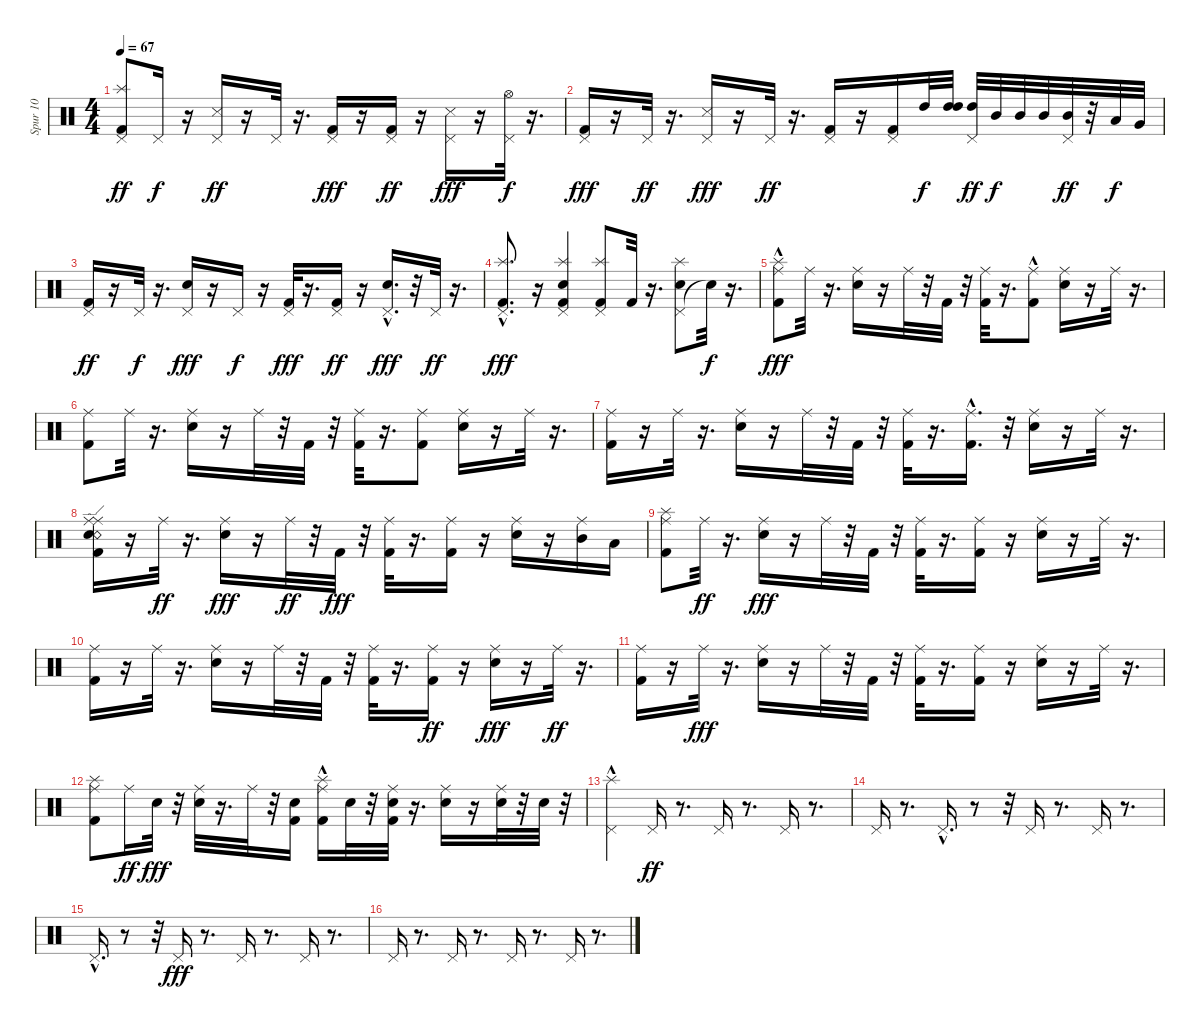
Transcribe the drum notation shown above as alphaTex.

\track ("Spur 10" "Spur 10") {instrument percussion}
\staff {score}
\articulation defaults
\ts (4 4)
\tempo 67
\clef neutral
\ks c
("Kick (hit) 2" "Splash (hit)" "Pedal Hi-Hat (hit)").8{dy ff} "Pedal Hi-Hat (hit)".16{dy f} r.16 ("Pedal Hi-Hat (hit)" "Snare (side stick) 3").16{dy ff} r.16 "Pedal Hi-Hat (hit)".32 r.16{d} ("Kick (hit) 2" "Pedal Hi-Hat (hit)").16{dy fff} r.16 ("Kick (hit) 2" "Pedal Hi-Hat (hit)").16{dy ff} r.16 ("Pedal Hi-Hat (hit)" "Snare (side stick) 3").16{dy fff} r.16 ("Pedal Hi-Hat (hit)" "Hi-Hat (open)").32{dy f} r.16{d} |
("Kick (hit) 2" "Pedal Hi-Hat (hit)").16{dy fff} r.16 "Pedal Hi-Hat (hit)".32{dy ff} r.16{d} ("Pedal Hi-Hat (hit)" "Snare (side stick) 3").16{dy fff} r.16 "Pedal Hi-Hat (hit)".32{dy ff} r.16{d} ("Kick (hit) 2" "Pedal Hi-Hat (hit)").16 r.16 ("Kick (hit) 2" "Pedal Hi-Hat (hit)").16 "High Tom (hit)".32{dy f} ("High Tom (hit)" "High Tom (hit)").32 ("High Tom (hit)" "Pedal Hi-Hat (hit)").32{dy ff} "Mid Tom (hit)".32{dy f} "Mid Tom (hit)".32 "Mid Tom (hit)".32 ("Pedal Hi-Hat (hit)" "Mid Tom (hit)").32{dy ff} r.32 "Low Tom (hit)".32{dy f} "Very Low Tom (hit)".32 |
("Kick (hit) 2" "Pedal Hi-Hat (hit)").16{dy ff} r.16 "Pedal Hi-Hat (hit)".32{dy f} r.16{d} ("Pedal Hi-Hat (hit)" "Snare (hit) 2").16{dy fff} r.16 "Pedal Hi-Hat (hit)".16{dy f} r.16 ("Kick (hit) 2" "Pedal Hi-Hat (hit)").32{dy fff} r.16{d} ("Kick (hit) 2" "Pedal Hi-Hat (hit)").16{dy ff} r.16 ("Pedal Hi-Hat (hit)" "Snare (hit) 2"{hac}).16{d dy fff} r.32 "Pedal Hi-Hat (hit)".32{dy ff} r.16{d} |
("Kick (hit) 2" "Splash (hit)"{hac} "Pedal Hi-Hat (hit)"{hac}).8{d dy fff} r.16 ("Splash (hit)" "Pedal Hi-Hat (hit)" "Snare (hit) 2" "Kick (hit) 2").4 ("Kick (hit) 2" "Splash (hit)" "Pedal Hi-Hat (hit)").8 "Kick (hit) 2".32 r.16{d} ("Pedal Hi-Hat (hit)" "Splash (hit)" "Snare (hit) 2").8 "Snare (hit)"{t}.32{dy f} r.16{d} |
("Kick (hit) 2" "Splash (hit)"{hac} "Ride (middle)").8{dy fff} "Ride (middle)".32 r.16{d} ("Ride (middle)" "Snare (hit) 2").16 r.16 "Ride (middle)".32 r.32 "Kick (hit) 2".32 r.32 ("Kick (hit) 2" "Ride (middle)").32 r.16{d} ("Kick (hit) 2"{hac} "Ride (middle)").8 ("Ride (middle)" "Snare (hit) 2").16 r.16 "Ride (middle)".32 r.16{d} |
("Kick (hit) 2" "Ride (middle)").8 "Ride (middle)".32 r.16{d} ("Ride (middle)" "Snare (hit) 2").16 r.16 "Ride (middle)".32 r.32 "Kick (hit) 2".32 r.32 ("Kick (hit) 2" "Ride (middle)").32 r.16{d} ("Kick (hit) 2" "Ride (middle)").8 ("Ride (middle)" "Snare (hit) 2").16 r.16 "Ride (middle)".32 r.16{d} |
("Kick (hit) 2" "Ride (middle)").16 r.16 "Ride (middle)".32 r.16{d} ("Ride (middle)" "Snare (hit) 2").16 r.16 "Ride (middle)".32 r.32 "Kick (hit) 2".32 r.32 ("Kick (hit) 2" "Ride (middle)").32 r.16{d} ("Kick (hit) 2"{hac} "Ride (middle)").16{d} r.32 ("Ride (middle)" "Snare (hit) 2").16 r.16 "Ride (middle)".32 r.16{d} |
("Kick (hit) 2" "Ride (middle)" "Ride (edge)" "Snare (rim shot)" "Snare (hit)").16 r.16 "Ride (middle)".32{dy ff} r.16{d} ("Ride (middle)" "Snare (hit) 2").16{dy fff} r.16 "Ride (middle)".32{dy ff} r.32 "Kick (hit) 2".32{dy fff} r.32 ("Kick (hit) 2" "Ride (middle)").32 r.16{d} ("Kick (hit) 2" "Ride (middle)").16 r.16 ("Ride (middle)" "Snare (hit) 2").16 r.16 ("Ride (middle)" "Mid Tom (hit)").16 "Low Tom (hit)".16 |
("Kick (hit) 2" "Splash (hit)" "Ride (middle)").8 "Ride (middle)".32{dy ff} r.16{d} ("Ride (middle)" "Snare (hit) 2").16{dy fff} r.16 "Ride (middle)".32 r.32 "Kick (hit) 2".32 r.32 ("Kick (hit) 2" "Ride (middle)").32 r.16{d} ("Kick (hit) 2" "Ride (middle)").16 r.16 ("Ride (middle)" "Snare (hit) 2").16 r.16 "Ride (middle)".32 r.16{d} |
("Kick (hit) 2" "Ride (middle)").16 r.16 "Ride (middle)".32 r.16{d} ("Ride (middle)" "Snare (hit) 2").16 r.16 "Ride (middle)".32 r.32 "Kick (hit) 2".32 r.32 ("Kick (hit) 2" "Ride (middle)").32 r.16{d} ("Kick (hit) 2" "Ride (middle)").16{dy ff} r.16 ("Ride (middle)" "Snare (hit) 2").16{dy fff} r.16 "Ride (middle)".32{dy ff} r.16{d} |
("Kick (hit) 2" "Ride (middle)").16 r.16 "Ride (middle)".32{dy fff} r.16{d} ("Ride (middle)" "Snare (hit) 2").16 r.16 "Ride (middle)".32 r.32 "Kick (hit) 2".32 r.32 ("Kick (hit) 2" "Ride (middle)").32 r.16{d} ("Kick (hit) 2" "Ride (middle)").16 r.16 ("Ride (middle)" "Snare (hit) 2").16 r.16 "Ride (middle)".32 r.16{d} |
("Kick (hit) 2" "Ride (middle)" "Splash (hit)").8 "Ride (middle)".16{dy ff} "Snare (hit) 2".32{dy fff} r.32 ("Ride (middle)" "Snare (hit) 2").32 r.16{d} "Ride (middle)".32 r.32 ("Kick (hit) 2" "Snare (hit) 2").16 ("Kick (hit) 2" "Ride (middle)" "Splash (hit)"{hac}).16 "Snare (hit) 2".32 r.32 ("Kick (hit) 2" "Ride (middle)" "Snare (hit) 2").32 r.16{d} ("Ride (middle)" "Snare (hit) 2").16 r.16 ("Ride (middle)" "Snare (hit) 2").32 r.32 "Snare (hit) 2".32 r.32 |
("Pedal Hi-Hat (hit)" "Splash (hit)"{hac}).4 "Pedal Hi-Hat (hit)".16{dy ff} r.8{d} "Pedal Hi-Hat (hit)".16 r.8{d} "Pedal Hi-Hat (hit)".16 r.8{d} |
"Pedal Hi-Hat (hit)".16 r.8{d} "Pedal Hi-Hat (hit)"{hac}.16{d} r.8 r.32 "Pedal Hi-Hat (hit)".16 r.8{d} "Pedal Hi-Hat (hit)".16 r.8{d} |
"Pedal Hi-Hat (hit)"{hac}.16{d} r.8 r.32 "Pedal Hi-Hat (hit)".16{dy fff} r.8{d} "Pedal Hi-Hat (hit)".16 r.8{d} "Pedal Hi-Hat (hit)".16 r.8{d} |
"Pedal Hi-Hat (hit)".16 r.8{d} "Pedal Hi-Hat (hit)".16 r.8{d} "Pedal Hi-Hat (hit)".16 r.8{d} "Pedal Hi-Hat (hit)".16 r.8{d}
